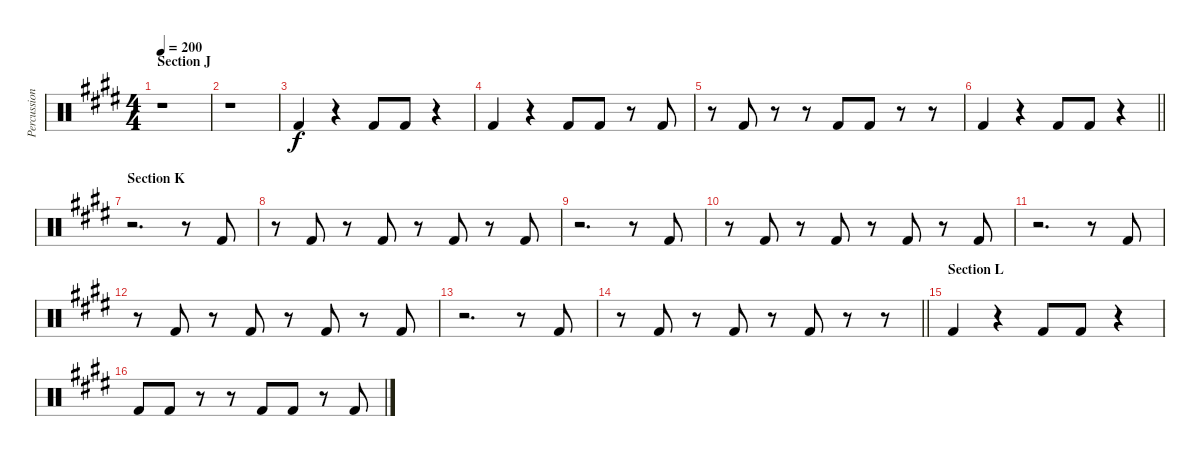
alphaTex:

\track ("Percussion - bass drum" "Percussion") {instrument percussion}
\staff {score}
\articulation defaults
\ts (4 4)
\section ("" "Section J")
\tempo 200
\clef neutral
\ks e
r.1{dy f} |
r.1 |
"Kick (hit) 2".4 r.4 "Kick (hit) 2".8 "Kick (hit) 2".8 r.4 |
"Kick (hit) 2".4 r.4 "Kick (hit) 2".8 "Kick (hit) 2".8 r.8 "Kick (hit) 2".8 |
r.8 "Kick (hit) 2".8 r.8 r.8 "Kick (hit) 2".8 "Kick (hit) 2".8 r.8 r.8 |
\barLineRight lightlight "Kick (hit) 2".4
r.4 "Kick (hit) 2".8 "Kick (hit) 2".8 r.4 |
\section ("" "Section K")
r.2{d} r.8 "Kick (hit) 2".8 |
r.8 "Kick (hit) 2".8 r.8 "Kick (hit) 2".8 r.8 "Kick (hit) 2".8 r.8 "Kick (hit) 2".8 |
r.2{d} r.8 "Kick (hit) 2".8 |
r.8 "Kick (hit) 2".8 r.8 "Kick (hit) 2".8 r.8 "Kick (hit) 2".8 r.8 "Kick (hit) 2".8 |
r.2{d} r.8 "Kick (hit) 2".8 |
r.8 "Kick (hit) 2".8 r.8 "Kick (hit) 2".8 r.8 "Kick (hit) 2".8 r.8 "Kick (hit) 2".8 |
r.2{d} r.8 "Kick (hit) 2".8 |
\barLineRight lightlight
r.8 "Kick (hit) 2".8 r.8 "Kick (hit) 2".8 r.8 "Kick (hit) 2".8 r.8 r.8 |
\section ("" "Section L")
"Kick (hit) 2".4 r.4 "Kick (hit) 2".8 "Kick (hit) 2".8 r.4 |
"Kick (hit) 2".8 "Kick (hit) 2".8 r.8 r.8 "Kick (hit) 2".8 "Kick (hit) 2".8 r.8 "Kick (hit) 2".8
